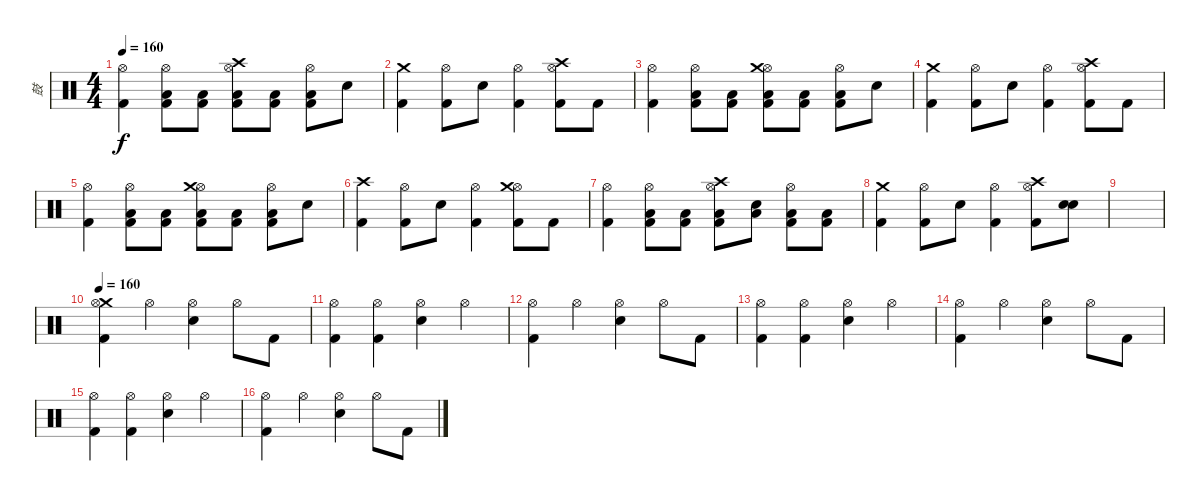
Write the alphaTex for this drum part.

\track ("鼓" "鼓") {instrument percussion}
\staff {score}
\articulation defaults
\ts (4 4)
\tempo 160
\clef neutral
\ks c
("Hi-Hat (open)" "Kick (hit) 2").4{dy f} ("Hi-Hat (open)" "Low Floor Tom (hit)" "Kick (hit) 2").8 ("Low Floor Tom (hit)" "Kick (hit) 2").8 ("Hi-Hat (open)" "Crash high (hit)" "Low Floor Tom (hit)" "Kick (hit) 2").8 ("Low Floor Tom (hit)" "Kick (hit) 2").8 ("Hi-Hat (open)" "Low Floor Tom (hit)" "Kick (hit) 2").8 "Electric Snare (hit)".8 |
("Crash medium (hit)" "Kick (hit) 2").4 ("Hi-Hat (open)" "Kick (hit) 2").8 "Electric Snare (hit)".8 ("Hi-Hat (open)" "Kick (hit) 2").4 ("Hi-Hat (open)" "Crash high (hit)" "Kick (hit) 2").8 "Kick (hit) 2".8 |
("Hi-Hat (open)" "Kick (hit) 2").4 ("Hi-Hat (open)" "Low Floor Tom (hit)" "Kick (hit) 2").8 ("Low Floor Tom (hit)" "Kick (hit) 2").8 ("Hi-Hat (open)" "Crash medium (hit)" "Low Floor Tom (hit)" "Kick (hit) 2").8 ("Low Floor Tom (hit)" "Kick (hit) 2").8 ("Hi-Hat (open)" "Low Floor Tom (hit)" "Kick (hit) 2").8 "Electric Snare (hit)".8 |
("Crash medium (hit)" "Kick (hit) 2").4 ("Hi-Hat (open)" "Kick (hit) 2").8 "Electric Snare (hit)".8 ("Hi-Hat (open)" "Kick (hit) 2").4 ("Hi-Hat (open)" "Crash high (hit)" "Kick (hit) 2").8 "Kick (hit) 2".8 |
("Hi-Hat (open)" "Kick (hit) 2").4 ("Hi-Hat (open)" "Low Floor Tom (hit)" "Kick (hit) 2").8 ("Low Floor Tom (hit)" "Kick (hit) 2").8 ("Hi-Hat (open)" "Crash medium (hit)" "Low Floor Tom (hit)" "Kick (hit) 2").8 ("Low Floor Tom (hit)" "Kick (hit) 2").8 ("Hi-Hat (open)" "Low Floor Tom (hit)" "Kick (hit) 2").8 "Electric Snare (hit)".8 |
("Crash high (hit)" "Kick (hit) 2").4 ("Hi-Hat (open)" "Kick (hit) 2").8 "Electric Snare (hit)".8 ("Hi-Hat (open)" "Kick (hit) 2").4 ("Hi-Hat (open)" "Crash medium (hit)" "Kick (hit) 2").8 "Kick (hit) 2".8 |
("Hi-Hat (open)" "Kick (hit) 2").4 ("Hi-Hat (open)" "Low Floor Tom (hit)" "Kick (hit) 2").8 ("Low Floor Tom (hit)" "Kick (hit) 2").8 ("Hi-Hat (open)" "Crash high (hit)" "Low Floor Tom (hit)" "Kick (hit) 2").8 ("Electric Snare (hit)" "Low Floor Tom (hit)").8 ("Hi-Hat (open)" "Low Floor Tom (hit)" "Kick (hit) 2").8 ("Low Floor Tom (hit)" "Kick (hit) 2").8 |
("Crash medium (hit)" "Kick (hit) 2").4 ("Hi-Hat (open)" "Kick (hit) 2").8 "Electric Snare (hit)".8 ("Hi-Hat (open)" "Kick (hit) 2").4 ("Hi-Hat (open)" "Crash high (hit)" "Kick (hit) 2").8 ("Electric Snare (hit)" "Electric Snare (hit)").8 |
|
\tempo 160
("Crash medium (hit)" "Hi-Hat (open)" "Kick (hit) 2").4 "Hi-Hat (open)".4 ("Hi-Hat (open)" "Electric Snare (hit)").4 "Hi-Hat (open)".8 "Kick (hit) 2".8 |
("Hi-Hat (open)" "Kick (hit) 2").4 ("Hi-Hat (open)" "Kick (hit) 2").4 ("Hi-Hat (open)" "Electric Snare (hit)").4 "Hi-Hat (open)".4 |
("Hi-Hat (open)" "Kick (hit) 2").4 "Hi-Hat (open)".4 ("Hi-Hat (open)" "Electric Snare (hit)").4 "Hi-Hat (open)".8 "Kick (hit) 2".8 |
("Hi-Hat (open)" "Kick (hit) 2").4 ("Hi-Hat (open)" "Kick (hit) 2").4 ("Hi-Hat (open)" "Electric Snare (hit)").4 "Hi-Hat (open)".4 |
("Hi-Hat (open)" "Kick (hit) 2").4 "Hi-Hat (open)".4 ("Hi-Hat (open)" "Electric Snare (hit)").4 "Hi-Hat (open)".8 "Kick (hit) 2".8 |
("Hi-Hat (open)" "Kick (hit) 2").4 ("Hi-Hat (open)" "Kick (hit) 2").4 ("Hi-Hat (open)" "Electric Snare (hit)").4 "Hi-Hat (open)".4 |
("Hi-Hat (open)" "Kick (hit) 2").4 "Hi-Hat (open)".4 ("Hi-Hat (open)" "Electric Snare (hit)").4 "Hi-Hat (open)".8 "Kick (hit) 2".8
